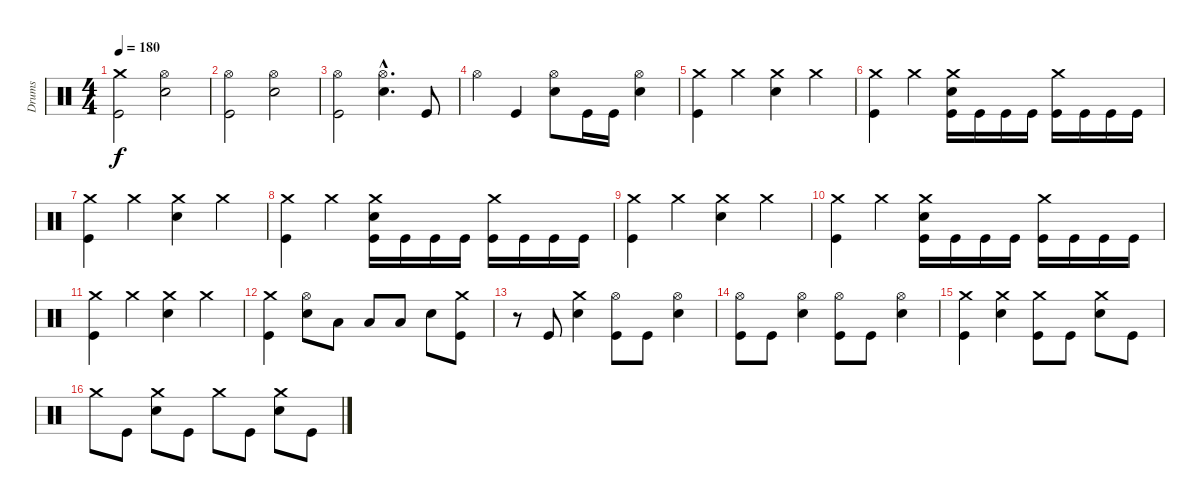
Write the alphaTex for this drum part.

\track ("Drums" "Drums") {instrument percussion}
\staff {score}
\articulation defaults
\ts (4 4)
\tempo 180
\clef neutral
\ks c
("Crash medium (hit)" "Kick (hit)").2{dy f} ("Hi-Hat (open)" "Electric Snare (hit)").2 |
("Hi-Hat (open)" "Kick (hit)").2 ("Hi-Hat (open)" "Electric Snare (hit)").2 |
("Hi-Hat (open)" "Kick (hit)").2 ("Hi-Hat (open)"{hac} "Electric Snare (hit)"{hac}).4{d} "Kick (hit)".8 |
"Hi-Hat (open)".4 "Kick (hit)".4 ("Hi-Hat (open)" "Electric Snare (hit)").8 "Kick (hit)".16 "Kick (hit)".16 ("Electric Snare (hit)" "Hi-Hat (open)").4 |
("Crash medium (hit)" "Kick (hit)").4 "Crash medium (hit)".4 ("Crash medium (hit)" "Electric Snare (hit)").4 "Crash medium (hit)".4 |
("Crash medium (hit)" "Kick (hit)").4 "Crash medium (hit)".4 ("Crash medium (hit)" "Kick (hit)" "Electric Snare (hit)").16 "Kick (hit)".16 "Kick (hit)".16 "Kick (hit)".16 ("Crash medium (hit)" "Kick (hit)").16 "Kick (hit)".16 "Kick (hit)".16 "Kick (hit)".16 |
("Crash medium (hit)" "Kick (hit)").4 "Crash medium (hit)".4 ("Crash medium (hit)" "Electric Snare (hit)").4 "Crash medium (hit)".4 |
("Crash medium (hit)" "Kick (hit)").4 "Crash medium (hit)".4 ("Crash medium (hit)" "Kick (hit)" "Electric Snare (hit)").16 "Kick (hit)".16 "Kick (hit)".16 "Kick (hit)".16 ("Crash medium (hit)" "Kick (hit)").16 "Kick (hit)".16 "Kick (hit)".16 "Kick (hit)".16 |
("Crash medium (hit)" "Kick (hit)").4 "Crash medium (hit)".4 ("Crash medium (hit)" "Electric Snare (hit)").4 "Crash medium (hit)".4 |
("Crash medium (hit)" "Kick (hit)").4 "Crash medium (hit)".4 ("Crash medium (hit)" "Kick (hit)" "Electric Snare (hit)").16 "Kick (hit)".16 "Kick (hit)".16 "Kick (hit)".16 ("Crash medium (hit)" "Kick (hit)").16 "Kick (hit)".16 "Kick (hit)".16 "Kick (hit)".16 |
("Crash medium (hit)" "Kick (hit)").4 "Crash medium (hit)".4 ("Crash medium (hit)" "Electric Snare (hit)").4 "Crash medium (hit)".4 |
("Crash medium (hit)" "Kick (hit)").4 ("Hi-Hat (open)" "Electric Snare (hit)").8 "Low Tom (hit)".8 "Low Tom (hit)".8 "Low Tom (hit)".8 "Electric Snare (hit)".8 ("Crash medium (hit)" "Kick (hit)").8 |
r.8 "Kick (hit)".8 ("Crash medium (hit)" "Electric Snare (hit)").4 ("Hi-Hat (open)" "Kick (hit)").8 "Kick (hit)".8 ("Hi-Hat (open)" "Electric Snare (hit)").4 |
("Hi-Hat (open)" "Kick (hit)").8 "Kick (hit)".8 ("Hi-Hat (open)" "Electric Snare (hit)").4 ("Hi-Hat (open)" "Kick (hit)").8 "Kick (hit)".8 ("Hi-Hat (open)" "Electric Snare (hit)").4 |
("Crash medium (hit)" "Kick (hit)").4 ("Crash medium (hit)" "Electric Snare (hit)").4 ("Crash medium (hit)" "Kick (hit)").8 "Kick (hit)".8 ("Crash medium (hit)" "Electric Snare (hit)").8 "Kick (hit)".8 |
"Crash medium (hit)".8 "Kick (hit)".8 ("Crash medium (hit)" "Electric Snare (hit)").8 "Kick (hit)".8 "Crash medium (hit)".8 "Kick (hit)".8 ("Crash medium (hit)" "Electric Snare (hit)").8 "Kick (hit)".8
